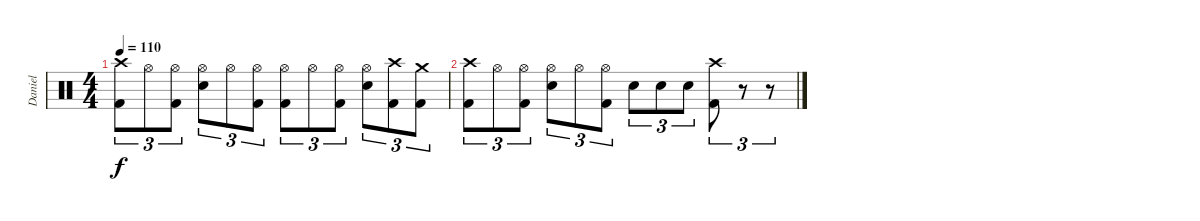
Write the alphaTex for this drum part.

\track ("Daniel" "Daniel") {instrument percussion}
\staff {score}
\articulation defaults
\ts (4 4)
\tempo 110
\clef neutral
\ks c
("Crash high (hit)" "Kick (hit) 2").8{tu (3 2) dy f} "Hi-Hat (open)".8{tu (3 2)} ("Hi-Hat (open)" "Kick (hit) 2").8{tu (3 2)} ("Hi-Hat (open)" "Electric Snare (hit)").8{tu (3 2)} "Hi-Hat (open)".8{tu (3 2)} ("Hi-Hat (open)" "Kick (hit) 2").8{tu (3 2)} ("Hi-Hat (open)" "Kick (hit) 2").8{tu (3 2)} "Hi-Hat (open)".8{tu (3 2)} ("Hi-Hat (open)" "Kick (hit) 2").8{tu (3 2)} ("Hi-Hat (open)" "Electric Snare (hit)").8{tu (3 2)} ("Crash high (hit)" "Kick (hit) 2").8{tu (3 2)} ("Crash medium (hit)" "Kick (hit) 2").8{tu (3 2)} |
("Crash high (hit)" "Kick (hit) 2").8{tu (3 2)} "Hi-Hat (open)".8{tu (3 2)} ("Hi-Hat (open)" "Kick (hit) 2").8{tu (3 2)} ("Hi-Hat (open)" "Electric Snare (hit)").8{tu (3 2)} "Hi-Hat (open)".8{tu (3 2)} ("Hi-Hat (open)" "Kick (hit) 2").8{tu (3 2)} "Electric Snare (hit)".8{tu (3 2)} "Electric Snare (hit)".8{tu (3 2)} "Electric Snare (hit)".8{tu (3 2)} ("Crash high (hit)" "Kick (hit) 2").8{tu (3 2)} r.8{tu (3 2)} r.8{tu (3 2)}
